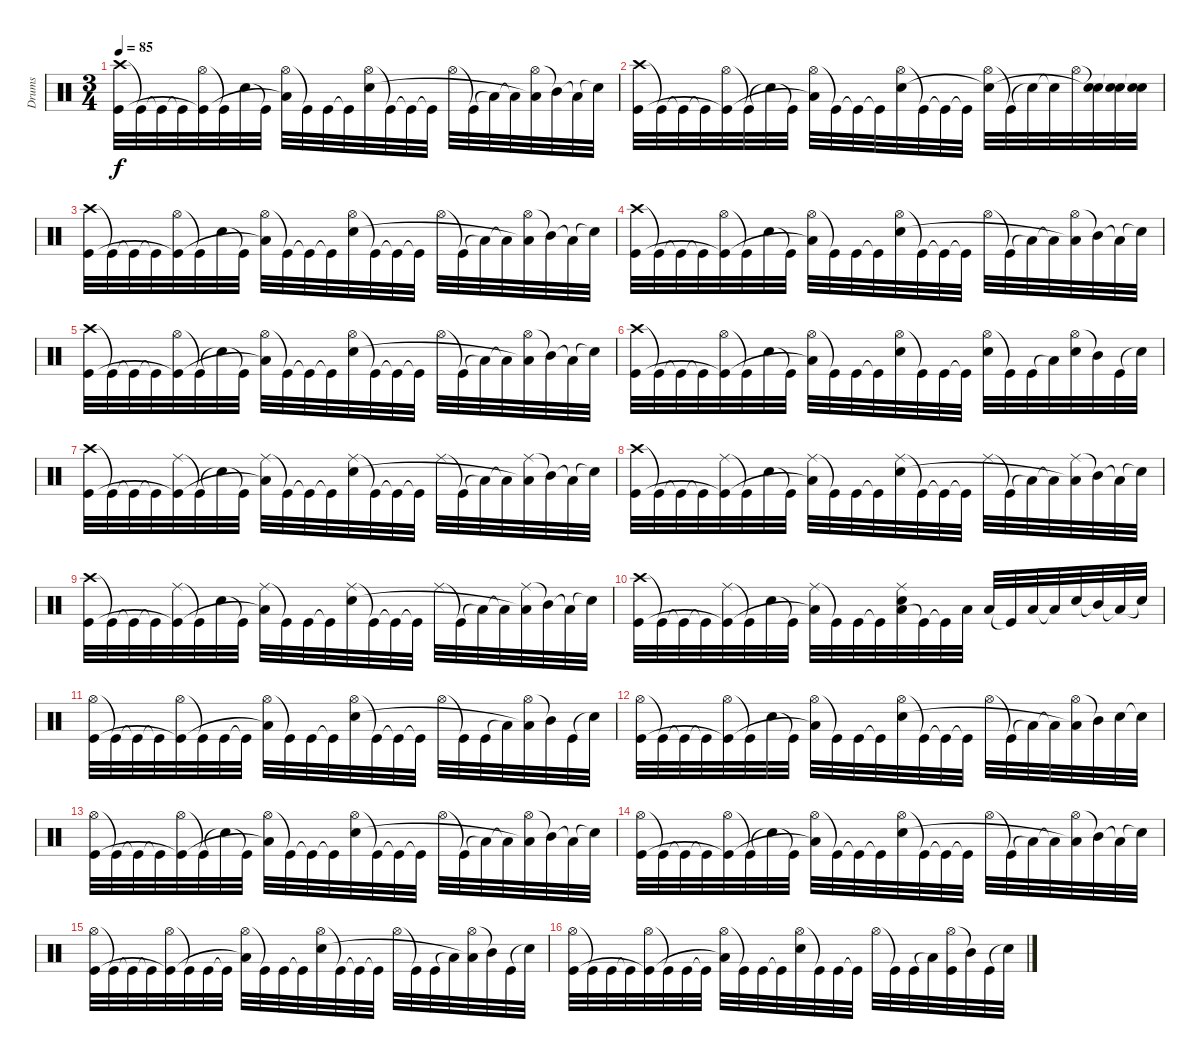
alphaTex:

\track ("Drums" "Drums") {instrument percussion}
\staff {score}
\articulation defaults
\ts (3 4)
\tempo 85
\clef neutral
\ks c
("Crash high (hit)" "Kick (hit)").32{dy f} "Kick (hit)"{t}.32 "Kick (hit)"{t}.32 "Kick (hit)"{t}.32 ("Hi-Hat (open)" "Kick (hit)"{t}).32 "Kick (hit)"{t}.32 "Electric Snare (hit)".32 "Kick (hit)"{t}.32 ("Hi-Hat (open)" "Low Floor Tom (hit)"{t}).32 "Kick (hit)"{t}.32 "Kick (hit)".32 "Kick (hit)"{t}.32 ("Hi-Hat (open)" "Electric Snare (hit)").32 "Kick (hit)"{t}.32 "Kick (hit)"{t}.32 "Kick (hit)"{t}.32 "Hi-Hat (open)".32 "Kick (hit)"{t}.32 "Low Floor Tom (hit)"{t}.32 "Low Floor Tom (hit)"{t}.32 ("Hi-Hat (open)" "Low Floor Tom (hit)"{t}).32 "Mid Tom (hit)"{t}.32 "Low Floor Tom (hit)"{t}.32 "Snare (hit)"{t}.32 |
("Crash high (hit)" "Kick (hit)").32 "Kick (hit)"{t}.32 "Kick (hit)"{t}.32 "Kick (hit)"{t}.32 ("Hi-Hat (open)" "Kick (hit)"{t}).32 "Kick (hit)"{t}.32 "Electric Snare (hit)"{t}.32 "Kick (hit)"{t}.32 ("Hi-Hat (open)" "Low Floor Tom (hit)"{t}).32 "Kick (hit)"{t}.32 "Kick (hit)"{t}.32 "Kick (hit)"{t}.32 ("Hi-Hat (open)" "Electric Snare (hit)").32 "Kick (hit)"{t}.32 "Kick (hit)"{t}.32 "Kick (hit)"{t}.32 ("Hi-Hat (open)" "Electric Snare (hit)"{t}).32 "Kick (hit)"{t}.32 "Snare (hit)"{t}.32 "Snare (hit)"{t}.32 "Hi-Hat (open)".32 ("Snare (hit)"{t} "Electric Snare (hit)"{t}).32 ("Snare (hit)"{t} "Electric Snare (hit)").32 ("Snare (hit)"{t} "Electric Snare (hit)").32 |
("Crash high (hit)" "Kick (hit)").32 "Kick (hit)"{t}.32 "Kick (hit)"{t}.32 "Kick (hit)"{t}.32 ("Hi-Hat (open)" "Kick (hit)"{t}).32 "Kick (hit)"{t}.32 "Electric Snare (hit)".32 "Kick (hit)"{t}.32 ("Hi-Hat (open)" "Low Floor Tom (hit)"{t}).32 "Kick (hit)"{t}.32 "Kick (hit)"{t}.32 "Kick (hit)"{t}.32 ("Hi-Hat (open)" "Electric Snare (hit)").32 "Kick (hit)"{t}.32 "Kick (hit)"{t}.32 "Kick (hit)"{t}.32 "Hi-Hat (open)".32 "Kick (hit)"{t}.32 "Low Floor Tom (hit)"{t}.32 "Low Floor Tom (hit)"{t}.32 ("Hi-Hat (open)" "Low Floor Tom (hit)"{t}).32 "Mid Tom (hit)"{t}.32 "Low Floor Tom (hit)"{t}.32 "Snare (hit)"{t}.32 |
("Crash high (hit)" "Kick (hit)").32 "Kick (hit)"{t}.32 "Kick (hit)"{t}.32 "Kick (hit)"{t}.32 ("Hi-Hat (open)" "Kick (hit)"{t}).32 "Kick (hit)"{t}.32 "Electric Snare (hit)".32 "Kick (hit)"{t}.32 ("Hi-Hat (open)" "Low Floor Tom (hit)"{t}).32 "Kick (hit)"{t}.32 "Kick (hit)".32 "Kick (hit)"{t}.32 ("Hi-Hat (open)" "Electric Snare (hit)").32 "Kick (hit)"{t}.32 "Kick (hit)"{t}.32 "Kick (hit)"{t}.32 "Hi-Hat (open)".32 "Kick (hit)"{t}.32 "Low Floor Tom (hit)"{t}.32 "Low Floor Tom (hit)"{t}.32 ("Hi-Hat (open)" "Low Floor Tom (hit)"{t}).32 "Mid Tom (hit)"{t}.32 "Low Floor Tom (hit)"{t}.32 "Snare (hit)"{t}.32 |
("Crash high (hit)" "Kick (hit)").32 "Kick (hit)"{t}.32 "Kick (hit)"{t}.32 "Kick (hit)"{t}.32 ("Hi-Hat (open)" "Kick (hit)"{t}).32 "Kick (hit)"{t}.32 "Electric Snare (hit)"{t}.32 "Kick (hit)"{t}.32 ("Hi-Hat (open)" "Low Floor Tom (hit)"{t}).32 "Kick (hit)"{t}.32 "Kick (hit)"{t}.32 "Kick (hit)"{t}.32 ("Hi-Hat (open)" "Electric Snare (hit)").32 "Kick (hit)"{t}.32 "Kick (hit)"{t}.32 "Kick (hit)"{t}.32 "Hi-Hat (open)".32 "Kick (hit)"{t}.32 "Low Floor Tom (hit)"{t}.32 "Low Floor Tom (hit)"{t}.32 ("Hi-Hat (open)" "Low Floor Tom (hit)"{t}).32 "Mid Tom (hit)"{t}.32 "Low Floor Tom (hit)"{t}.32 "Snare (hit)"{t}.32 |
("Crash high (hit)" "Kick (hit)").32 "Kick (hit)"{t}.32 "Kick (hit)"{t}.32 "Kick (hit)"{t}.32 ("Hi-Hat (open)" "Kick (hit)"{t}).32 "Kick (hit)"{t}.32 "Electric Snare (hit)".32 "Kick (hit)"{t}.32 ("Hi-Hat (open)" "Low Floor Tom (hit)"{t}).32 "Kick (hit)"{t}.32 "Kick (hit)".32 "Kick (hit)"{t}.32 ("Hi-Hat (open)" "Electric Snare (hit)").32 "Kick (hit)"{t}.32 "Kick (hit)".32 "Kick (hit)"{t}.32 ("Hi-Hat (open)" "Electric Snare (hit)").32 "Kick (hit)"{t}.32 "Kick (hit)".32 "Low Floor Tom (hit)"{t}.32 ("Hi-Hat (open)" "Electric Snare (hit)").32 "Mid Tom (hit)"{t}.32 "Kick (hit)".32 "Snare (hit)"{t}.32 |
("Crash high (hit)" "Kick (hit)").32 "Kick (hit)"{t}.32 "Kick (hit)"{t}.32 "Kick (hit)"{t}.32 ("Ride (middle)" "Kick (hit)"{t}).32 "Kick (hit)"{t}.32 "Electric Snare (hit)"{t}.32 "Kick (hit)"{t}.32 ("Ride (middle)" "Low Floor Tom (hit)"{t}).32 "Kick (hit)"{t}.32 "Kick (hit)"{t}.32 "Kick (hit)"{t}.32 ("Ride (middle)" "Electric Snare (hit)").32 "Kick (hit)"{t}.32 "Kick (hit)"{t}.32 "Kick (hit)"{t}.32 "Ride (middle)".32 "Kick (hit)"{t}.32 "Low Floor Tom (hit)"{t}.32 "Low Floor Tom (hit)"{t}.32 ("Ride (middle)" "Low Floor Tom (hit)"{t}).32 "Mid Tom (hit)"{t}.32 "Low Floor Tom (hit)"{t}.32 "Snare (hit)"{t}.32 |
("Crash high (hit)" "Kick (hit)").32 "Kick (hit)"{t}.32 "Kick (hit)"{t}.32 "Kick (hit)"{t}.32 ("Ride (middle)" "Kick (hit)"{t}).32 "Kick (hit)"{t}.32 "Electric Snare (hit)".32 "Kick (hit)"{t}.32 ("Ride (middle)" "Low Floor Tom (hit)"{t}).32 "Kick (hit)"{t}.32 "Kick (hit)".32 "Kick (hit)"{t}.32 ("Ride (middle)" "Electric Snare (hit)").32 "Kick (hit)"{t}.32 "Kick (hit)"{t}.32 "Kick (hit)"{t}.32 "Ride (middle)".32 "Kick (hit)"{t}.32 "Low Floor Tom (hit)"{t}.32 "Low Floor Tom (hit)"{t}.32 ("Ride (middle)" "Low Floor Tom (hit)"{t}).32 "Mid Tom (hit)"{t}.32 "Low Floor Tom (hit)"{t}.32 "Snare (hit)"{t}.32 |
("Crash high (hit)" "Kick (hit)").32 "Kick (hit)"{t}.32 "Kick (hit)"{t}.32 "Kick (hit)"{t}.32 ("Ride (middle)" "Kick (hit)"{t}).32 "Kick (hit)"{t}.32 "Electric Snare (hit)".32 "Kick (hit)"{t}.32 ("Ride (middle)" "Low Floor Tom (hit)"{t}).32 "Kick (hit)"{t}.32 "Kick (hit)".32 "Kick (hit)"{t}.32 ("Ride (middle)" "Electric Snare (hit)").32 "Kick (hit)"{t}.32 "Kick (hit)"{t}.32 "Kick (hit)"{t}.32 "Ride (middle)".32 "Kick (hit)"{t}.32 "Low Floor Tom (hit)"{t}.32 "Low Floor Tom (hit)"{t}.32 ("Ride (middle)" "Low Floor Tom (hit)"{t}).32 "Mid Tom (hit)"{t}.32 "Low Floor Tom (hit)"{t}.32 "Snare (hit)"{t}.32 |
("Crash high (hit)" "Kick (hit)").32 "Kick (hit)"{t}.32 "Kick (hit)"{t}.32 "Kick (hit)"{t}.32 ("Ride (middle)" "Kick (hit)"{t}).32 "Kick (hit)"{t}.32 "Electric Snare (hit)".32 "Kick (hit)"{t}.32 ("Ride (middle)" "Low Floor Tom (hit)"{t}).32 "Kick (hit)"{t}.32 "Kick (hit)".32 "Kick (hit)"{t}.32 ("Low Floor Tom (hit)" "Ride (middle)" "Electric Snare (hit)").32 "Kick (hit)"{t}.32 "Kick (hit)"{t}.32 "Low Floor Tom (hit)".32 "Low Floor Tom (hit)".32 "Kick (hit)"{t}.32 "Low Floor Tom (hit)".32 "Low Floor Tom (hit)"{t}.32 "Electric Snare (hit)".32 "Mid Tom (hit)"{t}.32 "Low Floor Tom (hit)"{t}.32 "Snare (hit)"{t}.32 |
("Hi-Hat (open)" "Kick (hit)").32 "Kick (hit)"{t}.32 "Kick (hit)"{t}.32 "Kick (hit)"{t}.32 ("Hi-Hat (open)" "Kick (hit)"{t}).32 "Kick (hit)"{t}.32 "Kick (hit)".32 "Kick (hit)"{t}.32 ("Hi-Hat (open)" "Low Floor Tom (hit)"{t}).32 "Kick (hit)"{t}.32 "Kick (hit)".32 "Kick (hit)"{t}.32 ("Hi-Hat (open)" "Electric Snare (hit)").32 "Kick (hit)"{t}.32 "Kick (hit)"{t}.32 "Kick (hit)"{t}.32 "Hi-Hat (open)".32 "Kick (hit)"{t}.32 "Kick (hit)".32 "Low Floor Tom (hit)"{t}.32 ("Hi-Hat (open)" "Low Floor Tom (hit)"{t}).32 "Mid Tom (hit)"{t}.32 "Kick (hit)".32 "Snare (hit)"{t}.32 |
("Hi-Hat (open)" "Kick (hit)").32 "Kick (hit)"{t}.32 "Kick (hit)"{t}.32 "Kick (hit)"{t}.32 ("Hi-Hat (open)" "Kick (hit)"{t}).32 "Kick (hit)"{t}.32 "Electric Snare (hit)".32 "Kick (hit)"{t}.32 ("Hi-Hat (open)" "Low Floor Tom (hit)"{t}).32 "Kick (hit)"{t}.32 "Kick (hit)".32 "Kick (hit)"{t}.32 ("Hi-Hat (open)" "Electric Snare (hit)").32 "Kick (hit)"{t}.32 "Kick (hit)"{t}.32 "Kick (hit)"{t}.32 "Hi-Hat (open)".32 "Kick (hit)"{t}.32 "Low Floor Tom (hit)"{t}.32 "Low Floor Tom (hit)"{t}.32 ("Hi-Hat (open)" "Low Floor Tom (hit)"{t}).32 "Mid Tom (hit)"{t}.32 "Electric Snare (hit)".32 "Snare (hit)"{t}.32 |
("Hi-Hat (open)" "Kick (hit)").32 "Kick (hit)"{t}.32 "Kick (hit)"{t}.32 "Kick (hit)"{t}.32 ("Hi-Hat (open)" "Kick (hit)"{t}).32 "Kick (hit)"{t}.32 "Electric Snare (hit)"{t}.32 "Kick (hit)"{t}.32 ("Hi-Hat (open)" "Low Floor Tom (hit)"{t}).32 "Kick (hit)"{t}.32 "Kick (hit)"{t}.32 "Kick (hit)"{t}.32 ("Hi-Hat (open)" "Electric Snare (hit)").32 "Kick (hit)"{t}.32 "Kick (hit)"{t}.32 "Kick (hit)"{t}.32 "Hi-Hat (open)".32 "Kick (hit)"{t}.32 "Low Floor Tom (hit)"{t}.32 "Low Floor Tom (hit)"{t}.32 ("Hi-Hat (open)" "Low Floor Tom (hit)"{t}).32 "Mid Tom (hit)"{t}.32 "Low Floor Tom (hit)"{t}.32 "Snare (hit)"{t}.32 |
("Hi-Hat (open)" "Kick (hit)").32 "Kick (hit)"{t}.32 "Kick (hit)"{t}.32 "Kick (hit)"{t}.32 ("Hi-Hat (open)" "Kick (hit)"{t}).32 "Kick (hit)"{t}.32 "Electric Snare (hit)"{t}.32 "Kick (hit)"{t}.32 ("Hi-Hat (open)" "Low Floor Tom (hit)"{t}).32 "Kick (hit)"{t}.32 "Kick (hit)"{t}.32 "Kick (hit)"{t}.32 ("Hi-Hat (open)" "Electric Snare (hit)").32 "Kick (hit)"{t}.32 "Kick (hit)"{t}.32 "Kick (hit)"{t}.32 "Hi-Hat (open)".32 "Kick (hit)"{t}.32 "Low Floor Tom (hit)"{t}.32 "Low Floor Tom (hit)"{t}.32 ("Hi-Hat (open)" "Low Floor Tom (hit)"{t}).32 "Mid Tom (hit)"{t}.32 "Low Floor Tom (hit)"{t}.32 "Snare (hit)"{t}.32 |
("Hi-Hat (open)" "Kick (hit)").32 "Kick (hit)"{t}.32 "Kick (hit)"{t}.32 "Kick (hit)"{t}.32 ("Hi-Hat (open)" "Kick (hit)"{t}).32 "Kick (hit)"{t}.32 "Kick (hit)".32 "Kick (hit)"{t}.32 ("Hi-Hat (open)" "Low Floor Tom (hit)"{t}).32 "Kick (hit)"{t}.32 "Kick (hit)".32 "Kick (hit)"{t}.32 ("Hi-Hat (open)" "Electric Snare (hit)").32 "Kick (hit)"{t}.32 "Kick (hit)"{t}.32 "Kick (hit)"{t}.32 "Hi-Hat (open)".32 "Kick (hit)"{t}.32 "Kick (hit)".32 "Low Floor Tom (hit)"{t}.32 ("Hi-Hat (open)" "Low Floor Tom (hit)"{t}).32 "Mid Tom (hit)"{t}.32 "Kick (hit)".32 "Snare (hit)"{t}.32 |
("Hi-Hat (open)" "Kick (hit)").32 "Kick (hit)"{t}.32 "Kick (hit)".32 "Kick (hit)"{t}.32 ("Hi-Hat (open)" "Kick (hit)"{t}).32 "Kick (hit)"{t}.32 "Kick (hit)".32 "Kick (hit)"{t}.32 ("Hi-Hat (open)" "Low Floor Tom (hit)"{t}).32 "Kick (hit)"{t}.32 "Kick (hit)".32 "Kick (hit)"{t}.32 ("Hi-Hat (open)" "Electric Snare (hit)").32 "Kick (hit)"{t}.32 "Kick (hit)".32 "Kick (hit)"{t}.32 "Hi-Hat (open)".32 "Kick (hit)"{t}.32 "Kick (hit)".32 "Low Floor Tom (hit)"{t}.32 ("Hi-Hat (open)" "Kick (hit)").32 "Mid Tom (hit)"{t}.32 "Kick (hit)".32 "Snare (hit)"{t}.32
